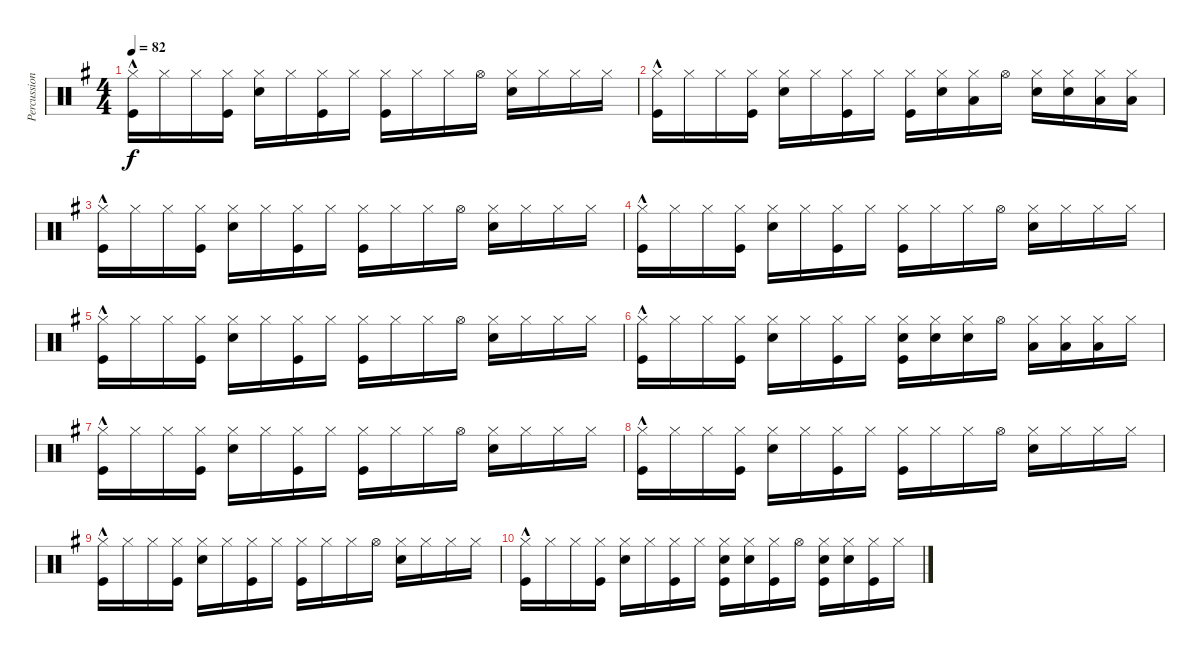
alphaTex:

\track ("Percussions" "Percussion") {instrument percussion}
\staff {score}
\articulation defaults
\ts (4 4)
\tempo 82
\clef neutral
\ks g
("Hi-Hat (closed)" "Kick (hit)"{hac}).16{dy f} "Hi-Hat (closed)".16 "Hi-Hat (closed)".16 ("Hi-Hat (closed)" "Kick (hit)").16 ("Hi-Hat (closed)" "Snare (hit) 2").16 "Hi-Hat (closed)".16 ("Hi-Hat (closed)" "Kick (hit)").16 "Hi-Hat (closed)".16 ("Hi-Hat (closed)" "Kick (hit)").16 "Hi-Hat (closed)".16 "Hi-Hat (closed)".16 "Hi-Hat (open)".16 ("Hi-Hat (closed)" "Snare (hit) 2").16 "Hi-Hat (closed)".16 "Hi-Hat (closed)".16 "Hi-Hat (closed)".16 |
("Hi-Hat (closed)" "Kick (hit)"{hac}).16 "Hi-Hat (closed)".16 "Hi-Hat (closed)".16 ("Hi-Hat (closed)" "Kick (hit)").16 ("Hi-Hat (closed)" "Snare (hit) 2").16 "Hi-Hat (closed)".16 ("Hi-Hat (closed)" "Kick (hit)").16 "Hi-Hat (closed)".16 ("Hi-Hat (closed)" "Kick (hit)").16 ("Hi-Hat (closed)" "Electric Snare (hit)").16 ("Hi-Hat (closed)" "Low Tom (hit)").16 "Hi-Hat (open)".16 ("Hi-Hat (closed)" "Electric Snare (hit)").16 ("Hi-Hat (closed)" "Electric Snare (hit)").16 ("Hi-Hat (closed)" "Low Tom (hit)").16 ("Hi-Hat (closed)" "Low Tom (hit)").16 |
("Hi-Hat (closed)" "Kick (hit)"{hac}).16 "Hi-Hat (closed)".16 "Hi-Hat (closed)".16 ("Hi-Hat (closed)" "Kick (hit)").16 ("Hi-Hat (closed)" "Snare (hit) 2").16 "Hi-Hat (closed)".16 ("Hi-Hat (closed)" "Kick (hit)").16 "Hi-Hat (closed)".16 ("Hi-Hat (closed)" "Kick (hit)").16 "Hi-Hat (closed)".16 "Hi-Hat (closed)".16 "Hi-Hat (open)".16 ("Hi-Hat (closed)" "Snare (hit) 2").16 "Hi-Hat (closed)".16 "Hi-Hat (closed)".16 "Hi-Hat (closed)".16 |
("Hi-Hat (closed)" "Kick (hit)"{hac}).16 "Hi-Hat (closed)".16 "Hi-Hat (closed)".16 ("Hi-Hat (closed)" "Kick (hit)").16 ("Hi-Hat (closed)" "Snare (hit) 2").16 "Hi-Hat (closed)".16 ("Hi-Hat (closed)" "Kick (hit)").16 "Hi-Hat (closed)".16 ("Hi-Hat (closed)" "Kick (hit)").16 "Hi-Hat (closed)".16 "Hi-Hat (closed)".16 "Hi-Hat (open)".16 ("Hi-Hat (closed)" "Snare (hit) 2").16 "Hi-Hat (closed)".16 "Hi-Hat (closed)".16 "Hi-Hat (closed)".16 |
("Hi-Hat (closed)" "Kick (hit)"{hac}).16 "Hi-Hat (closed)".16 "Hi-Hat (closed)".16 ("Hi-Hat (closed)" "Kick (hit)").16 ("Hi-Hat (closed)" "Snare (hit) 2").16 "Hi-Hat (closed)".16 ("Hi-Hat (closed)" "Kick (hit)").16 "Hi-Hat (closed)".16 ("Hi-Hat (closed)" "Kick (hit)").16 "Hi-Hat (closed)".16 "Hi-Hat (closed)".16 "Hi-Hat (open)".16 ("Hi-Hat (closed)" "Snare (hit) 2").16 "Hi-Hat (closed)".16 "Hi-Hat (closed)".16 "Hi-Hat (closed)".16 |
("Hi-Hat (closed)" "Kick (hit)"{hac}).16 "Hi-Hat (closed)".16 "Hi-Hat (closed)".16 ("Hi-Hat (closed)" "Kick (hit)").16 ("Hi-Hat (closed)" "Snare (hit) 2").16 "Hi-Hat (closed)".16 ("Hi-Hat (closed)" "Kick (hit)").16 "Hi-Hat (closed)".16 ("Hi-Hat (closed)" "Electric Snare (hit)" "Kick (hit)").16 ("Hi-Hat (closed)" "Electric Snare (hit)").16 ("Hi-Hat (closed)" "Electric Snare (hit)").16 "Hi-Hat (open)".16 ("Hi-Hat (closed)" "Low Tom (hit)").16 ("Hi-Hat (closed)" "Low Tom (hit)").16 ("Hi-Hat (closed)" "Low Tom (hit)").16 "Hi-Hat (closed)".16 |
("Hi-Hat (closed)" "Kick (hit)"{hac}).16 "Hi-Hat (closed)".16 "Hi-Hat (closed)".16 ("Hi-Hat (closed)" "Kick (hit)").16 ("Hi-Hat (closed)" "Snare (hit) 2").16 "Hi-Hat (closed)".16 ("Hi-Hat (closed)" "Kick (hit)").16 "Hi-Hat (closed)".16 ("Hi-Hat (closed)" "Kick (hit)").16 "Hi-Hat (closed)".16 "Hi-Hat (closed)".16 "Hi-Hat (open)".16 ("Hi-Hat (closed)" "Snare (hit) 2").16 "Hi-Hat (closed)".16 "Hi-Hat (closed)".16 "Hi-Hat (closed)".16 |
("Hi-Hat (closed)" "Kick (hit)"{hac}).16 "Hi-Hat (closed)".16 "Hi-Hat (closed)".16 ("Hi-Hat (closed)" "Kick (hit)").16 ("Hi-Hat (closed)" "Snare (hit) 2").16 "Hi-Hat (closed)".16 ("Hi-Hat (closed)" "Kick (hit)").16 "Hi-Hat (closed)".16 ("Hi-Hat (closed)" "Kick (hit)").16 "Hi-Hat (closed)".16 "Hi-Hat (closed)".16 "Hi-Hat (open)".16 ("Hi-Hat (closed)" "Snare (hit) 2").16 "Hi-Hat (closed)".16 "Hi-Hat (closed)".16 "Hi-Hat (closed)".16 |
("Hi-Hat (closed)" "Kick (hit)"{hac}).16 "Hi-Hat (closed)".16 "Hi-Hat (closed)".16 ("Hi-Hat (closed)" "Kick (hit)").16 ("Hi-Hat (closed)" "Snare (hit) 2").16 "Hi-Hat (closed)".16 ("Hi-Hat (closed)" "Kick (hit)").16 "Hi-Hat (closed)".16 ("Hi-Hat (closed)" "Kick (hit)").16 "Hi-Hat (closed)".16 "Hi-Hat (closed)".16 "Hi-Hat (open)".16 ("Hi-Hat (closed)" "Snare (hit) 2").16 "Hi-Hat (closed)".16 "Hi-Hat (closed)".16 "Hi-Hat (closed)".16 |
("Hi-Hat (closed)" "Kick (hit)"{hac}).16 "Hi-Hat (closed)".16 "Hi-Hat (closed)".16 ("Hi-Hat (closed)" "Kick (hit)").16 ("Hi-Hat (closed)" "Snare (hit) 2").16 "Hi-Hat (closed)".16 ("Hi-Hat (closed)" "Kick (hit)").16 "Hi-Hat (closed)".16 ("Hi-Hat (closed)" "Snare (hit) 2" "Kick (hit)").16 ("Hi-Hat (closed)" "Snare (hit) 2").16 ("Hi-Hat (closed)" "Kick (hit)").16 "Hi-Hat (open)".16 ("Hi-Hat (closed)" "Snare (hit) 2" "Kick (hit)").16 ("Hi-Hat (closed)" "Snare (hit) 2").16 ("Hi-Hat (closed)" "Kick (hit)").16 "Hi-Hat (closed)".16
